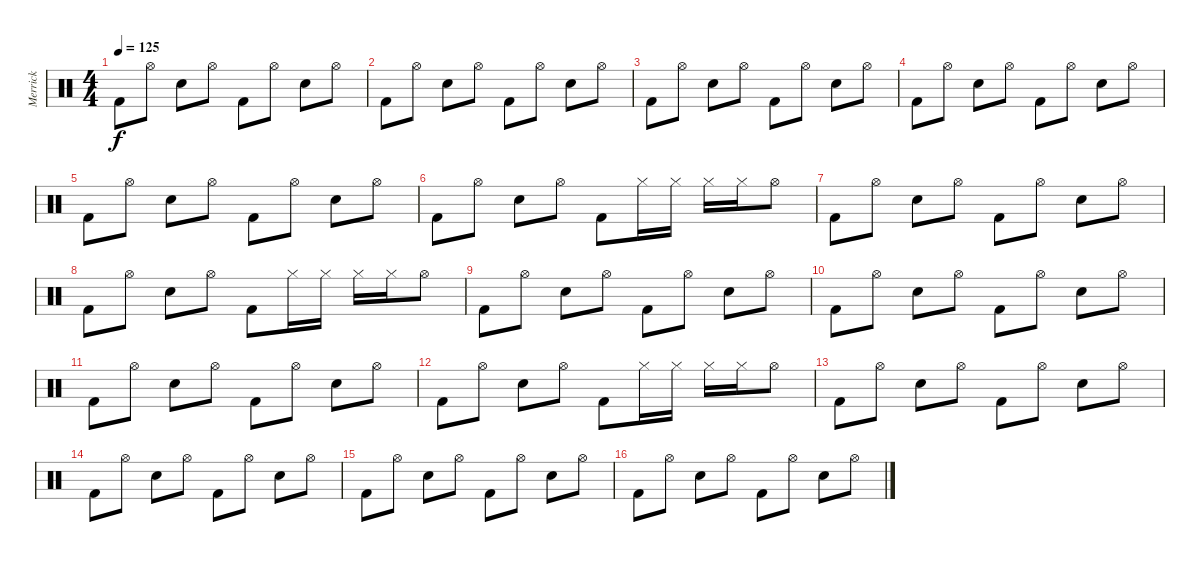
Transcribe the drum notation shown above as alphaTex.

\track ("Merrick " "Merrick ") {instrument percussion}
\staff {score}
\articulation defaults
\ts (4 4)
\tempo 125
\clef neutral
\ks c "Kick (hit) 2".8{dy f} "Hi-Hat (open)".8 "Electric Snare (hit)".8 "Hi-Hat (open)".8 "Kick (hit) 2".8 "Hi-Hat (open)".8 "Electric Snare (hit)".8 "Hi-Hat (open)".8
|
"Kick (hit) 2".8 "Hi-Hat (open)".8 "Electric Snare (hit)".8 "Hi-Hat (open)".8 "Kick (hit) 2".8 "Hi-Hat (open)".8 "Electric Snare (hit)".8 "Hi-Hat (open)".8 |
"Kick (hit) 2".8 "Hi-Hat (open)".8 "Electric Snare (hit)".8 "Hi-Hat (open)".8 "Kick (hit) 2".8 "Hi-Hat (open)".8 "Electric Snare (hit)".8 "Hi-Hat (open)".8 |
"Kick (hit) 2".8 "Hi-Hat (open)".8 "Electric Snare (hit)".8 "Hi-Hat (open)".8 "Kick (hit) 2".8 "Hi-Hat (open)".8 "Electric Snare (hit)".8 "Hi-Hat (open)".8 |
"Kick (hit) 2".8 "Hi-Hat (open)".8 "Electric Snare (hit)".8 "Hi-Hat (open)".8 "Kick (hit) 2".8 "Hi-Hat (open)".8 "Electric Snare (hit)".8 "Hi-Hat (open)".8 |
"Kick (hit) 2".8 "Hi-Hat (open)".8 "Electric Snare (hit)".8 "Hi-Hat (open)".8 "Kick (hit) 2".8 "Hi-Hat (closed)".16 "Hi-Hat (closed)".16 "Hi-Hat (closed)".16 "Hi-Hat (closed)".16 "Hi-Hat (open)".8 |
"Kick (hit) 2".8 "Hi-Hat (open)".8 "Electric Snare (hit)".8 "Hi-Hat (open)".8 "Kick (hit) 2".8 "Hi-Hat (open)".8 "Electric Snare (hit)".8 "Hi-Hat (open)".8 |
"Kick (hit) 2".8 "Hi-Hat (open)".8 "Electric Snare (hit)".8 "Hi-Hat (open)".8 "Kick (hit) 2".8 "Hi-Hat (closed)".16 "Hi-Hat (closed)".16 "Hi-Hat (closed)".16 "Hi-Hat (closed)".16 "Hi-Hat (open)".8 |
"Kick (hit) 2".8 "Hi-Hat (open)".8 "Electric Snare (hit)".8 "Hi-Hat (open)".8 "Kick (hit) 2".8 "Hi-Hat (open)".8 "Electric Snare (hit)".8 "Hi-Hat (open)".8 |
"Kick (hit) 2".8 "Hi-Hat (open)".8 "Electric Snare (hit)".8 "Hi-Hat (open)".8 "Kick (hit) 2".8 "Hi-Hat (open)".8 "Electric Snare (hit)".8 "Hi-Hat (open)".8 |
"Kick (hit) 2".8 "Hi-Hat (open)".8 "Electric Snare (hit)".8 "Hi-Hat (open)".8 "Kick (hit) 2".8 "Hi-Hat (open)".8 "Electric Snare (hit)".8 "Hi-Hat (open)".8 |
"Kick (hit) 2".8 "Hi-Hat (open)".8 "Electric Snare (hit)".8 "Hi-Hat (open)".8 "Kick (hit) 2".8 "Hi-Hat (closed)".16 "Hi-Hat (closed)".16 "Hi-Hat (closed)".16 "Hi-Hat (closed)".16 "Hi-Hat (open)".8 |
"Kick (hit) 2".8 "Hi-Hat (open)".8 "Electric Snare (hit)".8 "Hi-Hat (open)".8 "Kick (hit) 2".8 "Hi-Hat (open)".8 "Electric Snare (hit)".8 "Hi-Hat (open)".8 |
"Kick (hit) 2".8 "Hi-Hat (open)".8 "Electric Snare (hit)".8 "Hi-Hat (open)".8 "Kick (hit) 2".8 "Hi-Hat (open)".8 "Electric Snare (hit)".8 "Hi-Hat (open)".8 |
"Kick (hit) 2".8 "Hi-Hat (open)".8 "Electric Snare (hit)".8 "Hi-Hat (open)".8 "Kick (hit) 2".8 "Hi-Hat (open)".8 "Electric Snare (hit)".8 "Hi-Hat (open)".8 |
"Kick (hit) 2".8 "Hi-Hat (open)".8 "Electric Snare (hit)".8 "Hi-Hat (open)".8 "Kick (hit) 2".8 "Hi-Hat (open)".8 "Electric Snare (hit)".8 "Hi-Hat (open)".8
